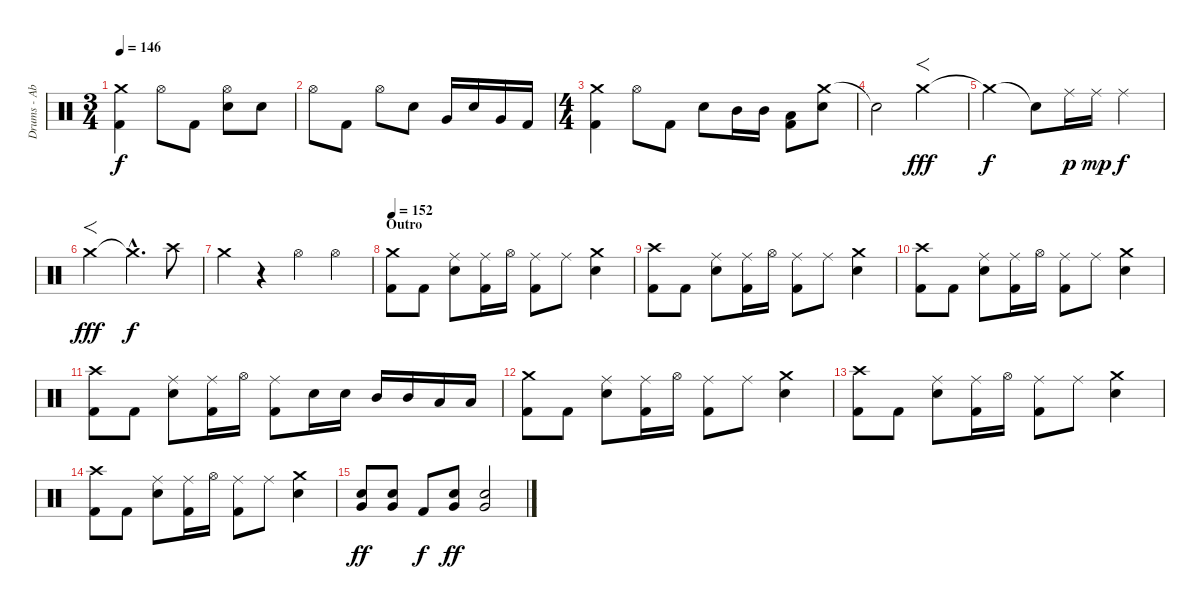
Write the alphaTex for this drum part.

\track ("Drums - Abe Cunningham" "Drums - Ab") {instrument percussion}
\staff {score}
\articulation defaults
\ts (3 4)
\tempo 146
\clef neutral
\ks c
("Crash medium (hit)" "Kick (hit) 2").4{dy f} "Hi-Hat (open)".8 "Kick (hit) 2".8 ("Hi-Hat (open)" "Electric Snare (hit)").8 "Electric Snare (hit)".8 |
"Hi-Hat (open)".8 "Kick (hit) 2".8 "Hi-Hat (open)".8 "Electric Snare (hit)".8 "Very Low Tom (hit)".16 "Electric Snare (hit)".16 "Very Low Tom (hit)".16 "Kick (hit) 2".16 |
\ts (4 4)
("Crash medium (hit)" "Kick (hit) 2").4 "Hi-Hat (open)".8 "Kick (hit) 2".8 "Electric Snare (hit)".8 "Mid Tom (hit)".16 "Mid Tom (hit)".16 ("Low Tom (hit)" "Kick (hit) 2").8 ("Crash medium (hit)" "Electric Snare (hit)").8 |
"Snare (hit)"{t}.2 "Crash medium (hit)".2{f dy fff} |
"Crash medium (hit)"{t}.2{dy f} "Snare (hit)"{t}.8 "Ride (middle)".16{dy p} "Ride (middle)".16{dy mp} "Ride (middle)".4{dy f} |
"Crash medium (hit)".2{f dy fff} "Crash medium (hit)"{hac t}.4{d dy f} "Crash high (hit)".8 |
"Crash medium (hit)".4 r.4 "Hi-Hat (open)".4 "Hi-Hat (open)".4 |
\section ("" "Outro")
\tempo 152
("Crash medium (hit)" "Kick (hit) 2").8 "Kick (hit) 2".8 ("Ride (middle)" "Electric Snare (hit)").8 ("Ride (middle)" "Kick (hit) 2").16 "Hi-Hat (open)".16 ("Ride (middle)" "Kick (hit) 2").8 "Ride (middle)".8 ("Crash medium (hit)" "Electric Snare (hit)").4 |
("Crash high (hit)" "Kick (hit) 2").8 "Kick (hit) 2".8 ("Ride (middle)" "Electric Snare (hit)").8 ("Ride (middle)" "Kick (hit) 2").16 "Hi-Hat (open)".16 ("Ride (middle)" "Kick (hit) 2").8 "Ride (middle)".8 ("Crash medium (hit)" "Electric Snare (hit)").4 |
("Crash high (hit)" "Kick (hit) 2").8 "Kick (hit) 2".8 ("Ride (middle)" "Electric Snare (hit)").8 ("Ride (middle)" "Kick (hit) 2").16 "Hi-Hat (open)".16 ("Ride (middle)" "Kick (hit) 2").8 "Ride (middle)".8 ("Crash medium (hit)" "Electric Snare (hit)").4 |
("Crash high (hit)" "Kick (hit) 2").8 "Kick (hit) 2".8 ("Ride (middle)" "Electric Snare (hit)").8 ("Ride (middle)" "Kick (hit) 2").16 "Hi-Hat (open)".16 ("Ride (middle)" "Kick (hit) 2").8 "Electric Snare (hit)".16 "Electric Snare (hit)".16 "Mid Tom (hit)".16 "Mid Tom (hit)".16 "Low Tom (hit)".16 "Low Tom (hit)".16 |
("Crash medium (hit)" "Kick (hit) 2").8 "Kick (hit) 2".8 ("Ride (middle)" "Electric Snare (hit)").8 ("Ride (middle)" "Kick (hit) 2").16 "Hi-Hat (open)".16 ("Ride (middle)" "Kick (hit) 2").8 "Ride (middle)".8 ("Crash medium (hit)" "Electric Snare (hit)").4 |
("Crash high (hit)" "Kick (hit) 2").8 "Kick (hit) 2".8 ("Ride (middle)" "Electric Snare (hit)").8 ("Ride (middle)" "Kick (hit) 2").16 "Hi-Hat (open)".16 ("Ride (middle)" "Kick (hit) 2").8 "Ride (middle)".8 ("Crash medium (hit)" "Electric Snare (hit)").4 |
("Crash high (hit)" "Kick (hit) 2").8 "Kick (hit) 2".8 ("Ride (middle)" "Electric Snare (hit)").8 ("Ride (middle)" "Kick (hit) 2").16 "Hi-Hat (open)".16 ("Ride (middle)" "Kick (hit) 2").8 "Ride (middle)".8 ("Crash medium (hit)" "Electric Snare (hit)").4 |
("Electric Snare (hit)" "Very Low Tom (hit)").8{dy ff} ("Electric Snare (hit)" "Very Low Tom (hit)").8 "Kick (hit) 2".8{dy f} ("Electric Snare (hit)" "Very Low Tom (hit)").8{dy ff} ("Electric Snare (hit)" "Very Low Tom (hit)").2
